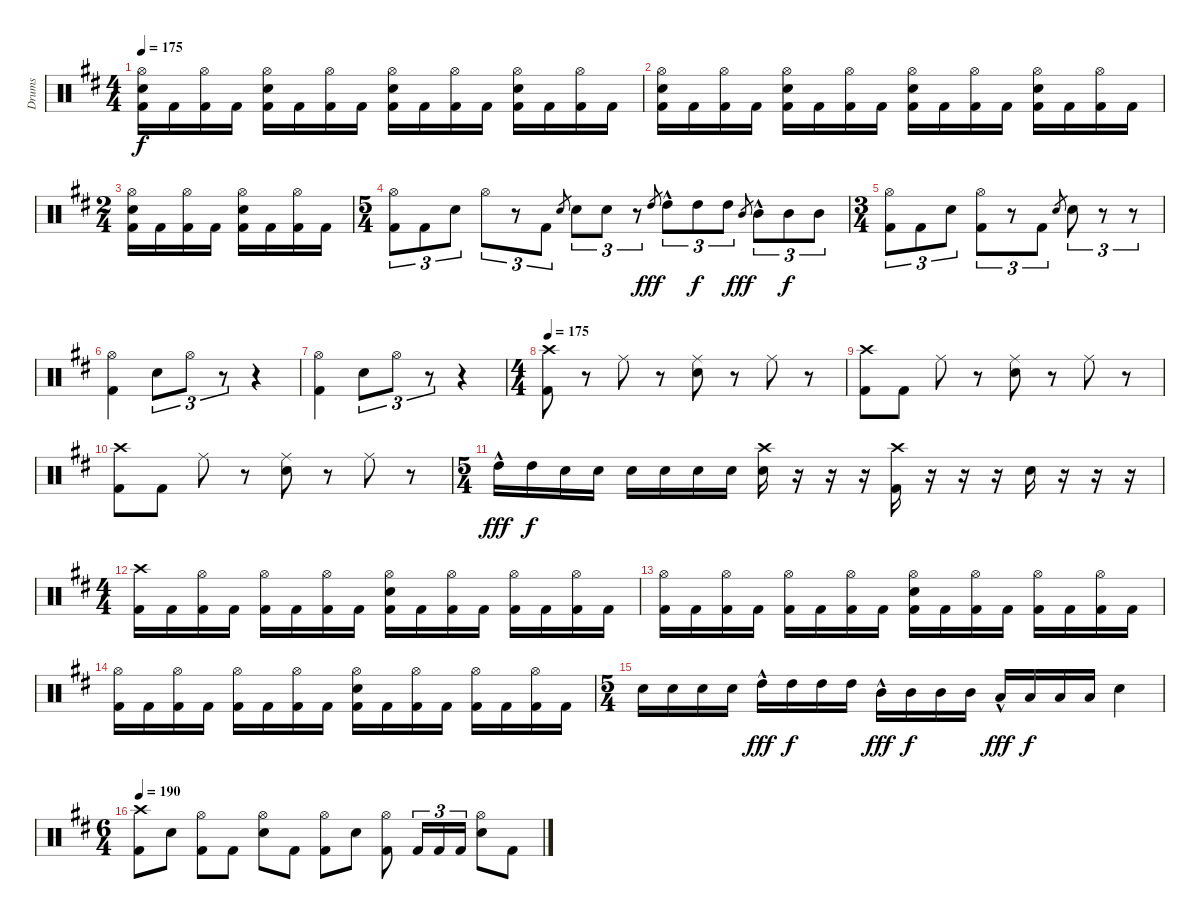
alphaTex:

\track ("Drums" "Drums") {instrument percussion}
\staff {score}
\articulation defaults
\ts (4 4)
\tempo 175
\clef neutral
\ks bminor
("Kick (hit) 2" "Electric Snare (hit)" "Hi-Hat (open)").16{dy f} "Kick (hit) 2".16 ("Kick (hit) 2" "Hi-Hat (open)").16 "Kick (hit) 2".16 ("Kick (hit) 2" "Electric Snare (hit)" "Hi-Hat (open)").16 "Kick (hit) 2".16 ("Kick (hit) 2" "Hi-Hat (open)").16 "Kick (hit) 2".16 ("Kick (hit) 2" "Electric Snare (hit)" "Hi-Hat (open)").16 "Kick (hit) 2".16 ("Kick (hit) 2" "Hi-Hat (open)").16 "Kick (hit) 2".16 ("Kick (hit) 2" "Electric Snare (hit)" "Hi-Hat (open)").16 "Kick (hit) 2".16 ("Kick (hit) 2" "Hi-Hat (open)").16 "Kick (hit) 2".16 |
("Kick (hit) 2" "Electric Snare (hit)" "Hi-Hat (open)").16 "Kick (hit) 2".16 ("Kick (hit) 2" "Hi-Hat (open)").16 "Kick (hit) 2".16 ("Kick (hit) 2" "Electric Snare (hit)" "Hi-Hat (open)").16 "Kick (hit) 2".16 ("Kick (hit) 2" "Hi-Hat (open)").16 "Kick (hit) 2".16 ("Kick (hit) 2" "Electric Snare (hit)" "Hi-Hat (open)").16 "Kick (hit) 2".16 ("Kick (hit) 2" "Hi-Hat (open)").16 "Kick (hit) 2".16 ("Kick (hit) 2" "Electric Snare (hit)" "Hi-Hat (open)").16 "Kick (hit) 2".16 ("Kick (hit) 2" "Hi-Hat (open)").16 "Kick (hit) 2".16 |
\ts (2 4)
("Kick (hit) 2" "Electric Snare (hit)" "Hi-Hat (open)").16 "Kick (hit) 2".16 ("Kick (hit) 2" "Hi-Hat (open)").16 "Kick (hit) 2".16 ("Kick (hit) 2" "Electric Snare (hit)" "Hi-Hat (open)").16 "Kick (hit) 2".16 ("Kick (hit) 2" "Hi-Hat (open)").16 "Kick (hit) 2".16 |
\ts (5 4)
("Kick (hit) 2" "Hi-Hat (open)").8{tu (3 2)} "Kick (hit) 2".8{tu (3 2)} "Electric Snare (hit)".8{tu (3 2)} "Hi-Hat (open)".8{tu (3 2)} r.8{tu (3 2)} "Kick (hit) 2".8{tu (3 2)} "Electric Snare (hit)".8{gr} "Electric Snare (hit)".8{tu (3 2)} "Electric Snare (hit)".8{tu (3 2)} r.8{tu (3 2)} "High Tom (hit)".8{gr dy fff} "High Tom (hit)"{hac}.8{tu (3 2)} "High Tom (hit)".8{tu (3 2) dy f} "High Tom (hit)".8{tu (3 2)} "Mid Tom (hit)".8{gr dy fff} "Mid Tom (hit)"{hac}.8{tu (3 2)} "Mid Tom (hit)".8{tu (3 2) dy f} "Mid Tom (hit)".8{tu (3 2)} |
\ts (3 4)
("Kick (hit) 2" "Hi-Hat (open)").8{tu (3 2)} "Kick (hit) 2".8{tu (3 2)} "Electric Snare (hit)".8{tu (3 2)} ("Kick (hit) 2" "Hi-Hat (open)").8{tu (3 2)} r.8{tu (3 2)} "Kick (hit) 2".8{tu (3 2)} "Electric Snare (hit)".8{gr} "Electric Snare (hit)".8{tu (3 2)} r.8{tu (3 2)} r.8{tu (3 2)} |
("Kick (hit) 2" "Hi-Hat (open)").4 "Electric Snare (hit)".8{tu (3 2)} "Hi-Hat (open)".8{tu (3 2)} r.8{tu (3 2)} r.4 |
("Kick (hit) 2" "Hi-Hat (open)").4 "Electric Snare (hit)".8{tu (3 2)} "Hi-Hat (open)".8{tu (3 2)} r.8{tu (3 2)} r.4 |
\ts (4 4)
\tempo 175
("Kick (hit) 2" "Crash high (hit)").8 r.8 "Ride (middle)".8 r.8 ("Electric Snare (hit)" "Ride (middle)").8 r.8 "Ride (middle)".8 r.8 |
("Kick (hit) 2" "Crash high (hit)").8 "Kick (hit) 2".8 "Ride (middle)".8 r.8 ("Electric Snare (hit)" "Ride (middle)").8 r.8 "Ride (middle)".8 r.8 |
("Kick (hit) 2" "Crash high (hit)").8 "Kick (hit) 2".8 "Ride (middle)".8 r.8 ("Electric Snare (hit)" "Ride (middle)").8 r.8 "Ride (middle)".8 r.8 |
\ts (5 4)
"High Tom (hit)"{hac}.16{dy fff} "High Tom (hit)".16{dy f} "Electric Snare (hit)".16 "Electric Snare (hit)".16 "Electric Snare (hit)".16 "Electric Snare (hit)".16 "Electric Snare (hit)".16 "Electric Snare (hit)".16 ("Electric Snare (hit)" "Crash high (hit)").16 r.16 r.16 r.16 ("Kick (hit) 2" "Crash high (hit)").16 r.16 r.16 r.16 "Electric Snare (hit)".16 r.16 r.16 r.16 |
\ts (4 4)
("Kick (hit) 2" "Crash high (hit)").16 "Kick (hit) 2".16 ("Kick (hit) 2" "Hi-Hat (open)").16 "Kick (hit) 2".16 ("Kick (hit) 2" "Hi-Hat (open)").16 "Kick (hit) 2".16 ("Kick (hit) 2" "Hi-Hat (open)").16 "Kick (hit) 2".16 ("Kick (hit) 2" "Electric Snare (hit)" "Hi-Hat (open)").16 "Kick (hit) 2".16 ("Kick (hit) 2" "Hi-Hat (open)").16 "Kick (hit) 2".16 ("Kick (hit) 2" "Hi-Hat (open)").16 "Kick (hit) 2".16 ("Kick (hit) 2" "Hi-Hat (open)").16 "Kick (hit) 2".16 |
("Kick (hit) 2" "Hi-Hat (open)").16 "Kick (hit) 2".16 ("Kick (hit) 2" "Hi-Hat (open)").16 "Kick (hit) 2".16 ("Kick (hit) 2" "Hi-Hat (open)").16 "Kick (hit) 2".16 ("Kick (hit) 2" "Hi-Hat (open)").16 "Kick (hit) 2".16 ("Kick (hit) 2" "Electric Snare (hit)" "Hi-Hat (open)").16 "Kick (hit) 2".16 ("Kick (hit) 2" "Hi-Hat (open)").16 "Kick (hit) 2".16 ("Kick (hit) 2" "Hi-Hat (open)").16 "Kick (hit) 2".16 ("Kick (hit) 2" "Hi-Hat (open)").16 "Kick (hit) 2".16 |
("Kick (hit) 2" "Hi-Hat (open)").16 "Kick (hit) 2".16 ("Kick (hit) 2" "Hi-Hat (open)").16 "Kick (hit) 2".16 ("Kick (hit) 2" "Hi-Hat (open)").16 "Kick (hit) 2".16 ("Kick (hit) 2" "Hi-Hat (open)").16 "Kick (hit) 2".16 ("Kick (hit) 2" "Electric Snare (hit)" "Hi-Hat (open)").16 "Kick (hit) 2".16 ("Kick (hit) 2" "Hi-Hat (open)").16 "Kick (hit) 2".16 ("Kick (hit) 2" "Hi-Hat (open)").16 "Kick (hit) 2".16 ("Kick (hit) 2" "Hi-Hat (open)").16 "Kick (hit) 2".16 |
\ts (5 4)
"Electric Snare (hit)".16 "Electric Snare (hit)".16 "Electric Snare (hit)".16 "Electric Snare (hit)".16 "High Tom (hit)"{hac}.16{dy fff} "High Tom (hit)".16{dy f} "High Tom (hit)".16 "High Tom (hit)".16 "Mid Tom (hit)"{hac}.16{dy fff} "Mid Tom (hit)".16{dy f} "Mid Tom (hit)".16 "Mid Tom (hit)".16 "Low Tom (hit)"{hac}.16{dy fff} "Low Tom (hit)".16{dy f} "Low Tom (hit)".16 "Low Tom (hit)".16 "Electric Snare (hit)".4 |
\ts (6 4)
\tempo 190
("Kick (hit) 2" "Crash high (hit)").8 "Electric Snare (hit)".8 ("Kick (hit) 2" "Hi-Hat (open)").8 "Kick (hit) 2".8 ("Electric Snare (hit)" "Hi-Hat (open)").8 "Kick (hit) 2".8 ("Kick (hit) 2" "Hi-Hat (open)").8 "Electric Snare (hit)".8 ("Kick (hit) 2" "Hi-Hat (open)").8 "Kick (hit) 2".16{tu (3 2)} "Kick (hit) 2".16{tu (3 2)} "Kick (hit) 2".16{tu (3 2)} ("Electric Snare (hit)" "Hi-Hat (open)").8 "Kick (hit) 2".8
